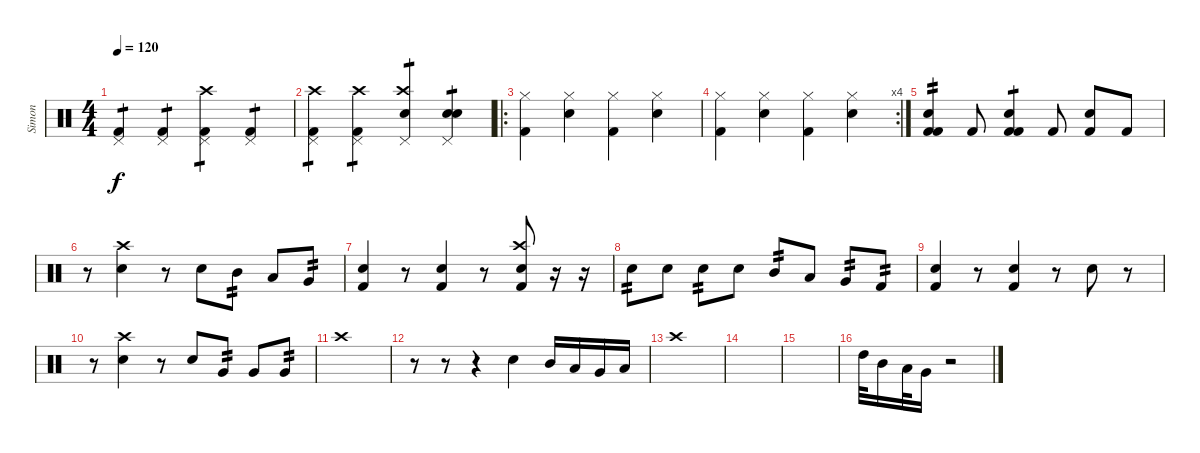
\track ("Simon" "Simon") {instrument percussion}
\staff {score}
\articulation defaults
\ts (4 4)
\tempo 120
\clef neutral
\ks c
("Kick (hit) 2" "Pedal Hi-Hat (hit)").4{tp 1 dy f} ("Kick (hit) 2" "Pedal Hi-Hat (hit)").4{tp 1} ("Kick (hit) 2" "Pedal Hi-Hat (hit)" "Crash high (hit)").4{tp 1} ("Kick (hit) 2" "Pedal Hi-Hat (hit)").4{tp 1} |
("Kick (hit) 2" "Pedal Hi-Hat (hit)" "Crash high (hit)").4{tp 1} ("Kick (hit) 2" "Pedal Hi-Hat (hit)" "Crash high (hit)").4{tp 1} ("Snare (hit) 2" "Pedal Hi-Hat (hit)" "Crash high (hit)").4{tp 1} ("Snare (hit) 2" "Pedal Hi-Hat (hit)" "Snare (hit)").4{tp 1} |
\ro
("Hi-Hat (closed)" "Kick (hit) 2").4 ("Hi-Hat (closed)" "Electric Snare (hit)").4 ("Hi-Hat (closed)" "Kick (hit) 2").4 ("Hi-Hat (closed)" "Electric Snare (hit)").4 |
\rc 4
("Hi-Hat (closed)" "Kick (hit) 2").4 ("Hi-Hat (closed)" "Electric Snare (hit)").4 ("Hi-Hat (closed)" "Kick (hit) 2").4 ("Hi-Hat (closed)" "Electric Snare (hit)").4 |
("Kick (hit) 2" "Kick (hit) 2" "Snare (hit) 2").4{tp 2} "Kick (hit) 2".8 ("Kick (hit) 2" "Kick (hit) 2" "Snare (hit) 2").4{tp 1} "Kick (hit) 2".8 ("Kick (hit) 2" "Snare (hit) 2").8 "Kick (hit) 2".8 |
r.8 ("Snare (hit) 2" "Crash high (hit)").4 r.8 "Snare (hit) 2".8 "Mid Tom (hit)".8{tp 2} "Low Tom (hit)".8 "Very Low Tom (hit)".8{tp 2} |
("Kick (hit) 2" "Snare (hit) 2").4 r.8 ("Kick (hit) 2" "Snare (hit) 2").4 r.8 ("Kick (hit) 2" "Snare (hit) 2" "Crash high (hit)").8 r.16 r.16 |
"Snare (hit) 2".8{tp 2} "Snare (hit) 2".8 "Snare (hit) 2".8{tp 2} "Snare (hit) 2".8 "Mid Tom (hit)".8{tp 2} "Low Tom (hit)".8 "Very Low Tom (hit)".8{tp 2} "Kick (hit) 2".8{tp 2} |
("Kick (hit) 2" "Snare (hit) 2").4 r.8 ("Kick (hit) 2" "Snare (hit) 2").4 r.8 "Snare (hit) 2".8 r.8 |
r.8 ("Snare (hit) 2" "Crash high (hit)").4 r.8 "Snare (hit) 2".8 "Very Low Tom (hit)".8{tp 2} "Very Low Tom (hit)".8 "Very Low Tom (hit)".8{tp 2} |
"Crash high (hit)".1 |
r.8 r.8 r.4 "Snare (hit) 2".4 "Mid Tom (hit)".16 "Low Tom (hit)".16 "Very Low Tom (hit)".16 "Low Floor Tom (hit)".16 |
"Crash high (hit)".1 |
|
|
"High Tom (hit)".32 "Mid Tom (hit)".16 "Low Tom (hit)".32 "Very Low Tom (hit)".16 r.2
